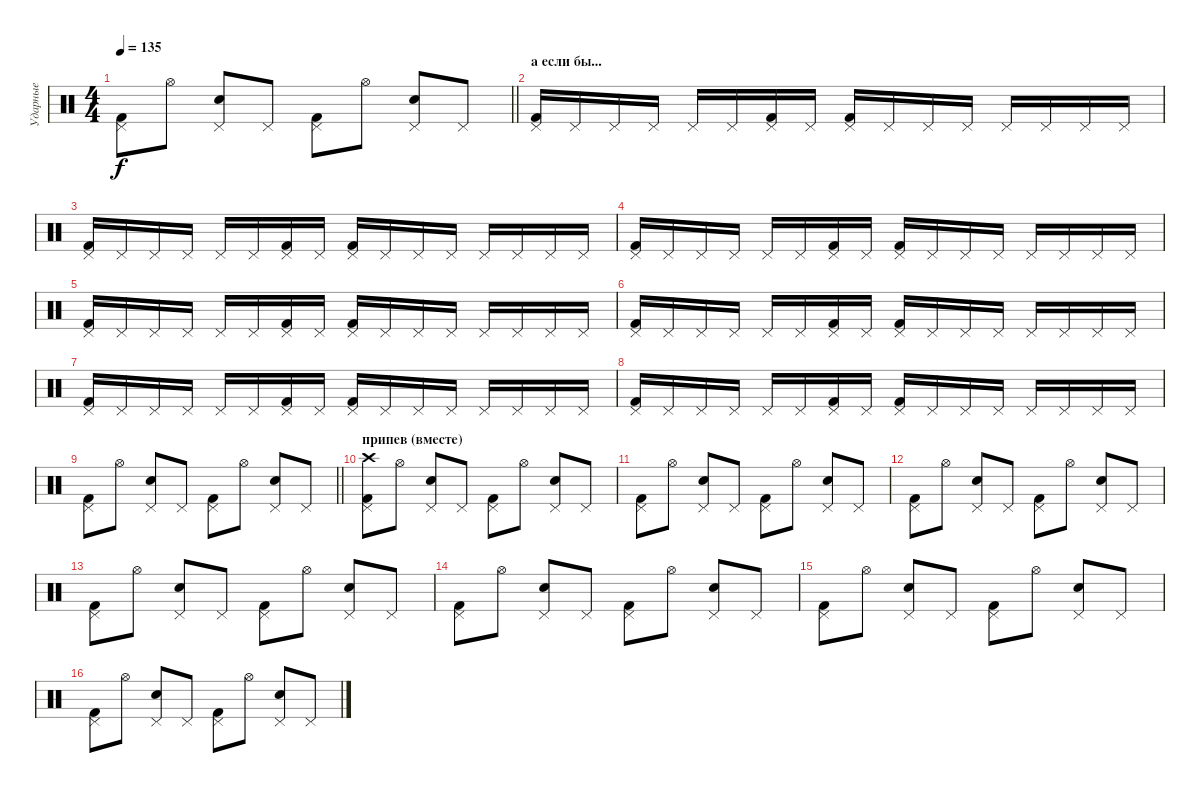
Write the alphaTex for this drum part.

\track ("Ударные" "Ударные") {instrument percussion}
\staff {score}
\articulation defaults
\ts (4 4)
\tempo 135
\clef neutral
\barLineRight lightlight
\ks c
("Pedal Hi-Hat (hit)" "Kick (hit) 2").8{dy f} "Hi-Hat (open)".8 ("Pedal Hi-Hat (hit)" "Snare (hit) 2").8 "Pedal Hi-Hat (hit)".8 ("Pedal Hi-Hat (hit)" "Kick (hit) 2").8 "Hi-Hat (open)".8 ("Pedal Hi-Hat (hit)" "Snare (hit) 2").8 "Pedal Hi-Hat (hit)".8 |
\section ("" "а если бы...")
("Pedal Hi-Hat (hit)" "Kick (hit) 2").16 "Pedal Hi-Hat (hit)".16 "Pedal Hi-Hat (hit)".16 "Pedal Hi-Hat (hit)".16 "Pedal Hi-Hat (hit)".16 "Pedal Hi-Hat (hit)".16 ("Pedal Hi-Hat (hit)" "Kick (hit) 2").16 "Pedal Hi-Hat (hit)".16 ("Pedal Hi-Hat (hit)" "Kick (hit) 2").16 "Pedal Hi-Hat (hit)".16 "Pedal Hi-Hat (hit)".16 "Pedal Hi-Hat (hit)".16 "Pedal Hi-Hat (hit)".16 "Pedal Hi-Hat (hit)".16 "Pedal Hi-Hat (hit)".16 "Pedal Hi-Hat (hit)".16 |
("Pedal Hi-Hat (hit)" "Kick (hit) 2").16 "Pedal Hi-Hat (hit)".16 "Pedal Hi-Hat (hit)".16 "Pedal Hi-Hat (hit)".16 "Pedal Hi-Hat (hit)".16 "Pedal Hi-Hat (hit)".16 ("Pedal Hi-Hat (hit)" "Kick (hit) 2").16 "Pedal Hi-Hat (hit)".16 ("Pedal Hi-Hat (hit)" "Kick (hit) 2").16 "Pedal Hi-Hat (hit)".16 "Pedal Hi-Hat (hit)".16 "Pedal Hi-Hat (hit)".16 "Pedal Hi-Hat (hit)".16 "Pedal Hi-Hat (hit)".16 "Pedal Hi-Hat (hit)".16 "Pedal Hi-Hat (hit)".16 |
("Pedal Hi-Hat (hit)" "Kick (hit) 2").16 "Pedal Hi-Hat (hit)".16 "Pedal Hi-Hat (hit)".16 "Pedal Hi-Hat (hit)".16 "Pedal Hi-Hat (hit)".16 "Pedal Hi-Hat (hit)".16 ("Pedal Hi-Hat (hit)" "Kick (hit) 2").16 "Pedal Hi-Hat (hit)".16 ("Pedal Hi-Hat (hit)" "Kick (hit) 2").16 "Pedal Hi-Hat (hit)".16 "Pedal Hi-Hat (hit)".16 "Pedal Hi-Hat (hit)".16 "Pedal Hi-Hat (hit)".16 "Pedal Hi-Hat (hit)".16 "Pedal Hi-Hat (hit)".16 "Pedal Hi-Hat (hit)".16 |
("Pedal Hi-Hat (hit)" "Kick (hit) 2").16 "Pedal Hi-Hat (hit)".16 "Pedal Hi-Hat (hit)".16 "Pedal Hi-Hat (hit)".16 "Pedal Hi-Hat (hit)".16 "Pedal Hi-Hat (hit)".16 ("Pedal Hi-Hat (hit)" "Kick (hit) 2").16 "Pedal Hi-Hat (hit)".16 ("Pedal Hi-Hat (hit)" "Kick (hit) 2").16 "Pedal Hi-Hat (hit)".16 "Pedal Hi-Hat (hit)".16 "Pedal Hi-Hat (hit)".16 "Pedal Hi-Hat (hit)".16 "Pedal Hi-Hat (hit)".16 "Pedal Hi-Hat (hit)".16 "Pedal Hi-Hat (hit)".16 |
("Pedal Hi-Hat (hit)" "Kick (hit) 2").16 "Pedal Hi-Hat (hit)".16 "Pedal Hi-Hat (hit)".16 "Pedal Hi-Hat (hit)".16 "Pedal Hi-Hat (hit)".16 "Pedal Hi-Hat (hit)".16 ("Pedal Hi-Hat (hit)" "Kick (hit) 2").16 "Pedal Hi-Hat (hit)".16 ("Pedal Hi-Hat (hit)" "Kick (hit) 2").16 "Pedal Hi-Hat (hit)".16 "Pedal Hi-Hat (hit)".16 "Pedal Hi-Hat (hit)".16 "Pedal Hi-Hat (hit)".16 "Pedal Hi-Hat (hit)".16 "Pedal Hi-Hat (hit)".16 "Pedal Hi-Hat (hit)".16 |
("Pedal Hi-Hat (hit)" "Kick (hit) 2").16 "Pedal Hi-Hat (hit)".16 "Pedal Hi-Hat (hit)".16 "Pedal Hi-Hat (hit)".16 "Pedal Hi-Hat (hit)".16 "Pedal Hi-Hat (hit)".16 ("Pedal Hi-Hat (hit)" "Kick (hit) 2").16 "Pedal Hi-Hat (hit)".16 ("Pedal Hi-Hat (hit)" "Kick (hit) 2").16 "Pedal Hi-Hat (hit)".16 "Pedal Hi-Hat (hit)".16 "Pedal Hi-Hat (hit)".16 "Pedal Hi-Hat (hit)".16 "Pedal Hi-Hat (hit)".16 "Pedal Hi-Hat (hit)".16 "Pedal Hi-Hat (hit)".16 |
("Pedal Hi-Hat (hit)" "Kick (hit) 2").16 "Pedal Hi-Hat (hit)".16 "Pedal Hi-Hat (hit)".16 "Pedal Hi-Hat (hit)".16 "Pedal Hi-Hat (hit)".16 "Pedal Hi-Hat (hit)".16 ("Pedal Hi-Hat (hit)" "Kick (hit) 2").16 "Pedal Hi-Hat (hit)".16 ("Pedal Hi-Hat (hit)" "Kick (hit) 2").16 "Pedal Hi-Hat (hit)".16 "Pedal Hi-Hat (hit)".16 "Pedal Hi-Hat (hit)".16 "Pedal Hi-Hat (hit)".16 "Pedal Hi-Hat (hit)".16 "Pedal Hi-Hat (hit)".16 "Pedal Hi-Hat (hit)".16 |
\barLineRight lightlight
("Pedal Hi-Hat (hit)" "Kick (hit) 2").8 "Hi-Hat (open)".8 ("Pedal Hi-Hat (hit)" "Snare (hit) 2").8 "Pedal Hi-Hat (hit)".8 ("Pedal Hi-Hat (hit)" "Kick (hit) 2").8 "Hi-Hat (open)".8 ("Pedal Hi-Hat (hit)" "Snare (hit) 2").8 "Pedal Hi-Hat (hit)".8 |
\section ("" "припев (вместе)")
("Pedal Hi-Hat (hit)" "Kick (hit) 2" "Crash high (hit)").8 "Hi-Hat (open)".8 ("Pedal Hi-Hat (hit)" "Snare (hit) 2").8 "Pedal Hi-Hat (hit)".8 ("Pedal Hi-Hat (hit)" "Kick (hit) 2").8 "Hi-Hat (open)".8 ("Pedal Hi-Hat (hit)" "Snare (hit) 2").8 "Pedal Hi-Hat (hit)".8 |
("Pedal Hi-Hat (hit)" "Kick (hit) 2").8 "Hi-Hat (open)".8 ("Pedal Hi-Hat (hit)" "Snare (hit) 2").8 "Pedal Hi-Hat (hit)".8 ("Pedal Hi-Hat (hit)" "Kick (hit) 2").8 "Hi-Hat (open)".8 ("Pedal Hi-Hat (hit)" "Snare (hit) 2").8 "Pedal Hi-Hat (hit)".8 |
("Pedal Hi-Hat (hit)" "Kick (hit) 2").8 "Hi-Hat (open)".8 ("Pedal Hi-Hat (hit)" "Snare (hit) 2").8 "Pedal Hi-Hat (hit)".8 ("Pedal Hi-Hat (hit)" "Kick (hit) 2").8 "Hi-Hat (open)".8 ("Pedal Hi-Hat (hit)" "Snare (hit) 2").8 "Pedal Hi-Hat (hit)".8 |
("Pedal Hi-Hat (hit)" "Kick (hit) 2").8 "Hi-Hat (open)".8 ("Pedal Hi-Hat (hit)" "Snare (hit) 2").8 "Pedal Hi-Hat (hit)".8 ("Pedal Hi-Hat (hit)" "Kick (hit) 2").8 "Hi-Hat (open)".8 ("Pedal Hi-Hat (hit)" "Snare (hit) 2").8 "Pedal Hi-Hat (hit)".8 |
("Pedal Hi-Hat (hit)" "Kick (hit) 2").8 "Hi-Hat (open)".8 ("Pedal Hi-Hat (hit)" "Snare (hit) 2").8 "Pedal Hi-Hat (hit)".8 ("Pedal Hi-Hat (hit)" "Kick (hit) 2").8 "Hi-Hat (open)".8 ("Pedal Hi-Hat (hit)" "Snare (hit) 2").8 "Pedal Hi-Hat (hit)".8 |
("Pedal Hi-Hat (hit)" "Kick (hit) 2").8 "Hi-Hat (open)".8 ("Pedal Hi-Hat (hit)" "Snare (hit) 2").8 "Pedal Hi-Hat (hit)".8 ("Pedal Hi-Hat (hit)" "Kick (hit) 2").8 "Hi-Hat (open)".8 ("Pedal Hi-Hat (hit)" "Snare (hit) 2").8 "Pedal Hi-Hat (hit)".8 |
("Pedal Hi-Hat (hit)" "Kick (hit) 2").8 "Hi-Hat (open)".8 ("Pedal Hi-Hat (hit)" "Snare (hit) 2").8 "Pedal Hi-Hat (hit)".8 ("Pedal Hi-Hat (hit)" "Kick (hit) 2").8 "Hi-Hat (open)".8 ("Pedal Hi-Hat (hit)" "Snare (hit) 2").8 "Pedal Hi-Hat (hit)".8
